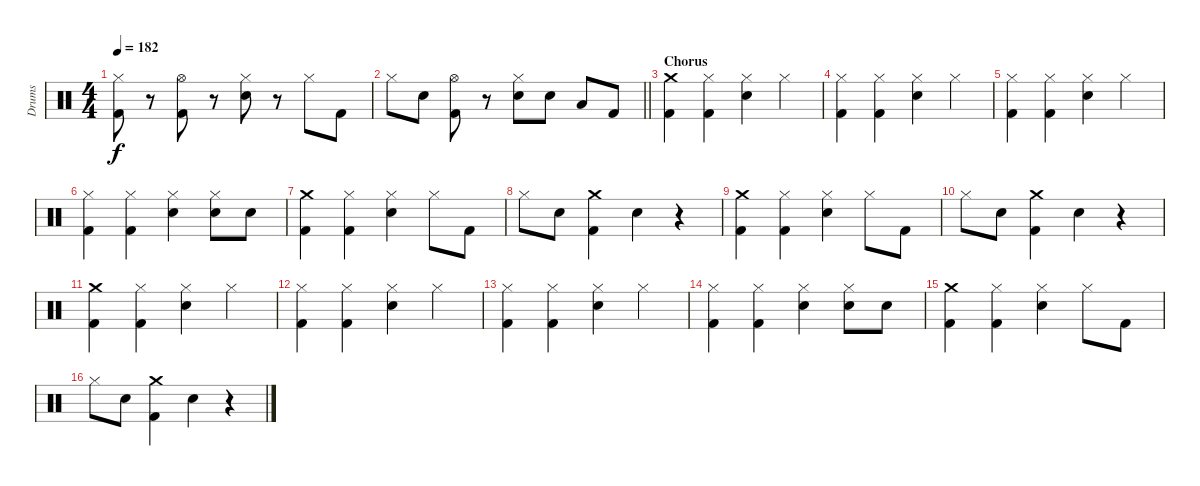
\track ("Drums" "Drums") {instrument percussion}
\staff {score}
\articulation defaults
\ts (4 4)
\tempo 182
\clef neutral
\ks c
("Hi-Hat (closed)" "Kick (hit) 2").8{dy f} r.8 ("Hi-Hat (open)" "Kick (hit) 2").8 r.8 ("Hi-Hat (closed)" "Snare (hit) 2").8 r.8 "Hi-Hat (closed)".8 "Kick (hit) 2".8 |
\barLineRight lightlight "Hi-Hat (closed)".8 "Snare (hit) 2".8
("Hi-Hat (open)" "Kick (hit) 2").8 r.8 ("Hi-Hat (closed)" "Snare (hit) 2").8 "Snare (hit) 2".8 "Low Tom (hit)".8 "Kick (hit) 2".8 |
\section ("" "Chorus")
("Crash medium (hit)" "Kick (hit) 2").4 ("Hi-Hat (closed)" "Kick (hit) 2").4 ("Hi-Hat (closed)" "Snare (hit) 2").4 "Hi-Hat (closed)".4 |
("Hi-Hat (closed)" "Kick (hit) 2").4 ("Hi-Hat (closed)" "Kick (hit) 2").4 ("Hi-Hat (closed)" "Snare (hit) 2").4 "Hi-Hat (closed)".4 |
("Hi-Hat (closed)" "Kick (hit) 2").4 ("Hi-Hat (closed)" "Kick (hit) 2").4 ("Hi-Hat (closed)" "Snare (hit) 2").4 "Hi-Hat (closed)".4 |
("Hi-Hat (closed)" "Kick (hit) 2").4 ("Hi-Hat (closed)" "Kick (hit) 2").4 ("Hi-Hat (closed)" "Snare (hit) 2").4 ("Hi-Hat (closed)" "Snare (hit) 2").8 "Snare (hit) 2".8 |
("Crash medium (hit)" "Kick (hit) 2").4 ("Hi-Hat (closed)" "Kick (hit) 2").4 ("Hi-Hat (closed)" "Snare (hit) 2").4 "Hi-Hat (closed)".8 "Kick (hit) 2".8 |
"Hi-Hat (closed)".8 "Snare (hit) 2".8 ("Crash medium (hit)" "Kick (hit) 2").4 "Snare (hit) 2".4 r.4 |
("Crash medium (hit)" "Kick (hit) 2").4 ("Hi-Hat (closed)" "Kick (hit) 2").4 ("Hi-Hat (closed)" "Snare (hit) 2").4 "Hi-Hat (closed)".8 "Kick (hit) 2".8 |
"Hi-Hat (closed)".8 "Snare (hit) 2".8 ("Crash medium (hit)" "Kick (hit) 2").4 "Snare (hit) 2".4 r.4 |
("Crash medium (hit)" "Kick (hit) 2").4 ("Hi-Hat (closed)" "Kick (hit) 2").4 ("Hi-Hat (closed)" "Snare (hit) 2").4 "Hi-Hat (closed)".4 |
("Hi-Hat (closed)" "Kick (hit) 2").4 ("Hi-Hat (closed)" "Kick (hit) 2").4 ("Hi-Hat (closed)" "Snare (hit) 2").4 "Hi-Hat (closed)".4 |
("Hi-Hat (closed)" "Kick (hit) 2").4 ("Hi-Hat (closed)" "Kick (hit) 2").4 ("Hi-Hat (closed)" "Snare (hit) 2").4 "Hi-Hat (closed)".4 |
("Hi-Hat (closed)" "Kick (hit) 2").4 ("Hi-Hat (closed)" "Kick (hit) 2").4 ("Hi-Hat (closed)" "Snare (hit) 2").4 ("Hi-Hat (closed)" "Snare (hit) 2").8 "Snare (hit) 2".8 |
("Crash medium (hit)" "Kick (hit) 2").4 ("Hi-Hat (closed)" "Kick (hit) 2").4 ("Hi-Hat (closed)" "Snare (hit) 2").4 "Hi-Hat (closed)".8 "Kick (hit) 2".8 |
"Hi-Hat (closed)".8 "Snare (hit) 2".8 ("Crash medium (hit)" "Kick (hit) 2").4 "Snare (hit) 2".4 r.4
